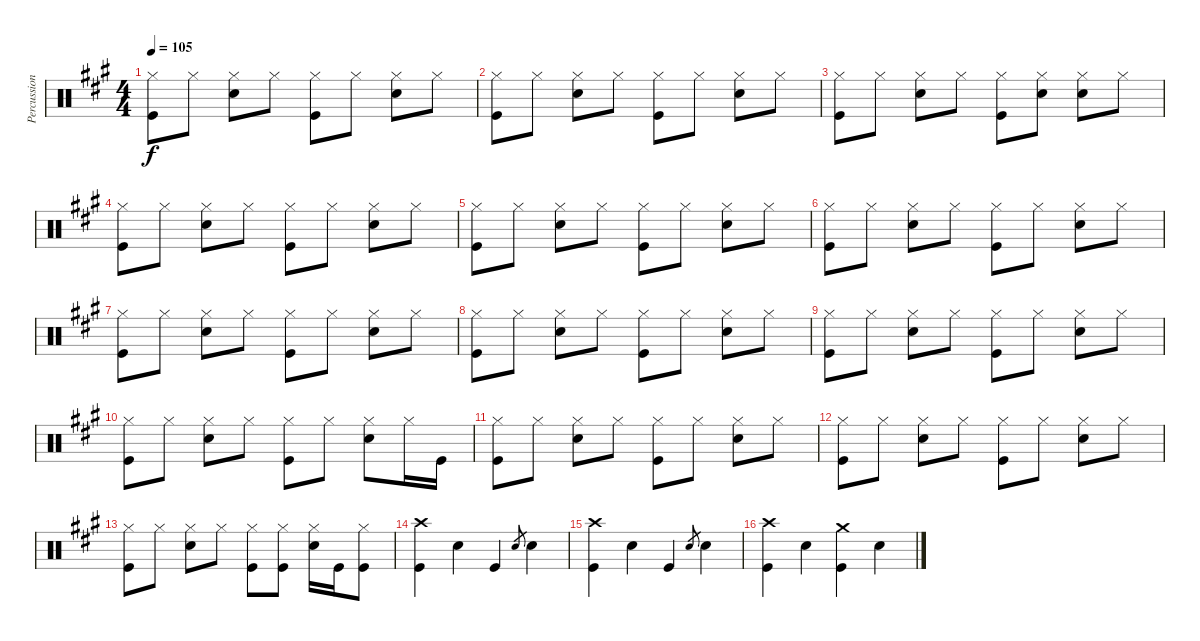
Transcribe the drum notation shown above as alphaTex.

\track ("Percussion" "Percussion") {instrument percussion}
\staff {score}
\articulation defaults
\ts (4 4)
\tempo 105
\clef neutral
\ks a
("Hi-Hat (closed)" "Kick (hit)").8{dy f} "Hi-Hat (closed)".8 ("Hi-Hat (closed)" "Snare (hit) 2").8 "Hi-Hat (closed)".8 ("Hi-Hat (closed)" "Kick (hit)").8 "Hi-Hat (closed)".8 ("Hi-Hat (closed)" "Snare (hit) 2").8 "Hi-Hat (closed)".8 |
("Hi-Hat (closed)" "Kick (hit)").8 "Hi-Hat (closed)".8 ("Hi-Hat (closed)" "Snare (hit) 2").8 "Hi-Hat (closed)".8 ("Hi-Hat (closed)" "Kick (hit)").8 "Hi-Hat (closed)".8 ("Hi-Hat (closed)" "Snare (hit) 2").8 "Hi-Hat (closed)".8 |
("Hi-Hat (closed)" "Kick (hit)").8 "Hi-Hat (closed)".8 ("Hi-Hat (closed)" "Snare (hit) 2").8 "Hi-Hat (closed)".8 ("Hi-Hat (closed)" "Kick (hit)").8 ("Hi-Hat (closed)" "Snare (hit) 2").8 ("Hi-Hat (closed)" "Snare (hit) 2").8 "Hi-Hat (closed)".8 |
("Hi-Hat (closed)" "Kick (hit)").8 "Hi-Hat (closed)".8 ("Hi-Hat (closed)" "Snare (hit) 2").8 "Hi-Hat (closed)".8 ("Hi-Hat (closed)" "Kick (hit)").8 "Hi-Hat (closed)".8 ("Hi-Hat (closed)" "Snare (hit) 2").8 "Hi-Hat (closed)".8 |
("Hi-Hat (closed)" "Kick (hit)").8 "Hi-Hat (closed)".8 ("Hi-Hat (closed)" "Snare (hit) 2").8 "Hi-Hat (closed)".8 ("Hi-Hat (closed)" "Kick (hit)").8 "Hi-Hat (closed)".8 ("Hi-Hat (closed)" "Snare (hit) 2").8 "Hi-Hat (closed)".8 |
("Hi-Hat (closed)" "Kick (hit)").8 "Hi-Hat (closed)".8 ("Hi-Hat (closed)" "Snare (hit) 2").8 "Hi-Hat (closed)".8 ("Hi-Hat (closed)" "Kick (hit)").8 "Hi-Hat (closed)".8 ("Hi-Hat (closed)" "Snare (hit) 2").8 "Hi-Hat (closed)".8 |
("Hi-Hat (closed)" "Kick (hit)").8 "Hi-Hat (closed)".8 ("Hi-Hat (closed)" "Snare (hit) 2").8 "Hi-Hat (closed)".8 ("Hi-Hat (closed)" "Kick (hit)").8 "Hi-Hat (closed)".8 ("Hi-Hat (closed)" "Snare (hit) 2").8 "Hi-Hat (closed)".8 |
("Hi-Hat (closed)" "Kick (hit)").8 "Hi-Hat (closed)".8 ("Hi-Hat (closed)" "Snare (hit) 2").8 "Hi-Hat (closed)".8 ("Hi-Hat (closed)" "Kick (hit)").8 "Hi-Hat (closed)".8 ("Hi-Hat (closed)" "Snare (hit) 2").8 "Hi-Hat (closed)".8 |
("Hi-Hat (closed)" "Kick (hit)").8 "Hi-Hat (closed)".8 ("Hi-Hat (closed)" "Snare (hit) 2").8 "Hi-Hat (closed)".8 ("Hi-Hat (closed)" "Kick (hit)").8 "Hi-Hat (closed)".8 ("Hi-Hat (closed)" "Snare (hit) 2").8 "Hi-Hat (closed)".8 |
("Hi-Hat (closed)" "Kick (hit)").8 "Hi-Hat (closed)".8 ("Hi-Hat (closed)" "Snare (hit) 2").8 "Hi-Hat (closed)".8 ("Hi-Hat (closed)" "Kick (hit)").8 "Hi-Hat (closed)".8 ("Hi-Hat (closed)" "Snare (hit) 2").8 "Hi-Hat (closed)".16 "Kick (hit)".16 |
("Hi-Hat (closed)" "Kick (hit)").8 "Hi-Hat (closed)".8 ("Hi-Hat (closed)" "Snare (hit) 2").8 "Hi-Hat (closed)".8 ("Hi-Hat (closed)" "Kick (hit)").8 "Hi-Hat (closed)".8 ("Hi-Hat (closed)" "Snare (hit) 2").8 "Hi-Hat (closed)".8 |
("Hi-Hat (closed)" "Kick (hit)").8 "Hi-Hat (closed)".8 ("Hi-Hat (closed)" "Snare (hit) 2").8 "Hi-Hat (closed)".8 ("Hi-Hat (closed)" "Kick (hit)").8 "Hi-Hat (closed)".8 ("Hi-Hat (closed)" "Snare (hit) 2").8 "Hi-Hat (closed)".8 |
("Hi-Hat (closed)" "Kick (hit)").8 "Hi-Hat (closed)".8 ("Hi-Hat (closed)" "Snare (hit) 2").8 "Hi-Hat (closed)".8 ("Hi-Hat (closed)" "Kick (hit)").8 ("Hi-Hat (closed)" "Kick (hit)").8 ("Hi-Hat (closed)" "Snare (hit) 2").16 "Kick (hit)".16 ("Hi-Hat (closed)" "Kick (hit)").8 |
("Crash high (hit)" "Kick (hit)").4 "Snare (hit) 2".4 "Kick (hit)".4 "Snare (hit) 2".8{gr} "Snare (hit) 2".4 |
("Crash high (hit)" "Kick (hit)").4 "Snare (hit) 2".4 "Kick (hit)".4 "Snare (hit) 2".8{gr} "Snare (hit) 2".4 |
("Crash high (hit)" "Kick (hit)").4 "Snare (hit) 2".4 ("Crash medium (hit)" "Kick (hit)").4 "Snare (hit) 2".4
